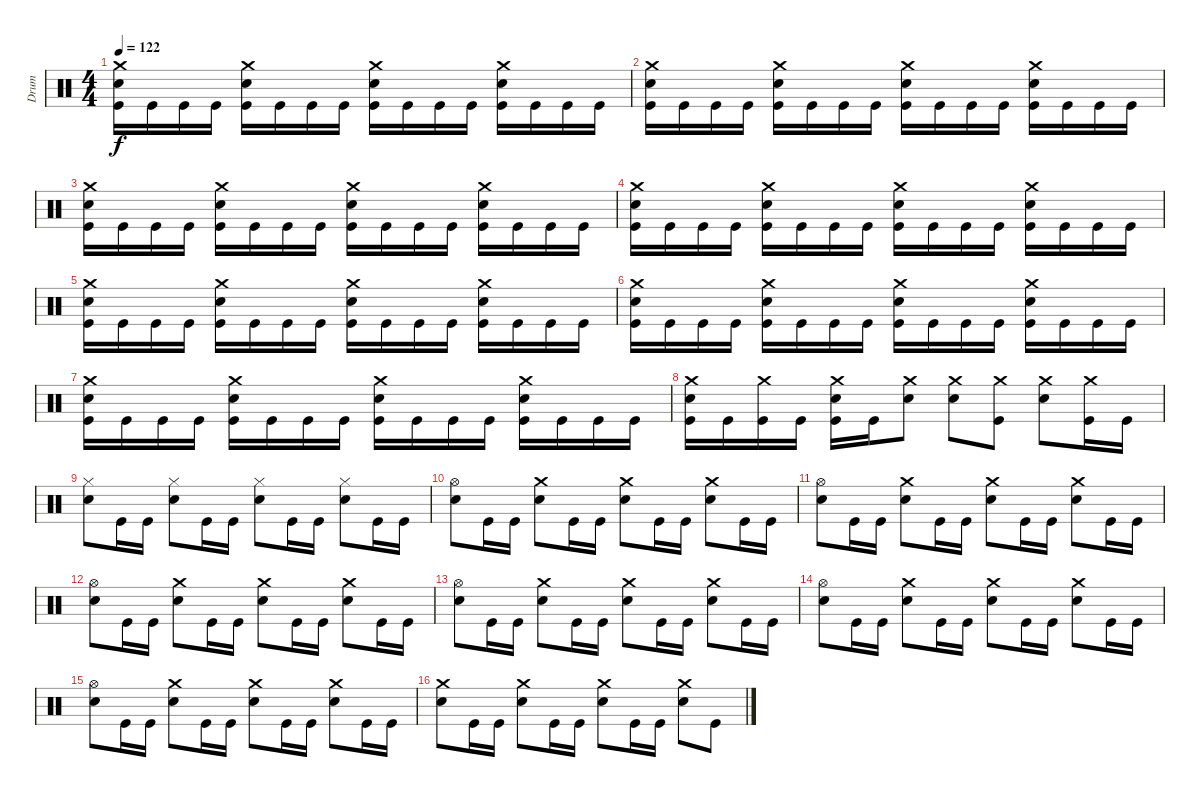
\track ("Drum" "Drum") {instrument percussion}
\staff {score}
\articulation defaults
\ts (4 4)
\tempo 122
\clef neutral
\ks c
("Kick (hit)" "Electric Snare (hit)" "Crash medium (hit)").16{dy f} "Kick (hit)".16 "Kick (hit)".16 "Kick (hit)".16 ("Kick (hit)" "Electric Snare (hit)" "Crash medium (hit)").16 "Kick (hit)".16 "Kick (hit)".16 "Kick (hit)".16 ("Kick (hit)" "Electric Snare (hit)" "Crash medium (hit)").16 "Kick (hit)".16 "Kick (hit)".16 "Kick (hit)".16 ("Kick (hit)" "Electric Snare (hit)" "Crash medium (hit)").16 "Kick (hit)".16 "Kick (hit)".16 "Kick (hit)".16 |
("Kick (hit)" "Electric Snare (hit)" "Crash medium (hit)").16 "Kick (hit)".16 "Kick (hit)".16 "Kick (hit)".16 ("Kick (hit)" "Electric Snare (hit)" "Crash medium (hit)").16 "Kick (hit)".16 "Kick (hit)".16 "Kick (hit)".16 ("Kick (hit)" "Electric Snare (hit)" "Crash medium (hit)").16 "Kick (hit)".16 "Kick (hit)".16 "Kick (hit)".16 ("Kick (hit)" "Electric Snare (hit)" "Crash medium (hit)").16 "Kick (hit)".16 "Kick (hit)".16 "Kick (hit)".16 |
("Kick (hit)" "Electric Snare (hit)" "Crash medium (hit)").16 "Kick (hit)".16 "Kick (hit)".16 "Kick (hit)".16 ("Kick (hit)" "Electric Snare (hit)" "Crash medium (hit)").16 "Kick (hit)".16 "Kick (hit)".16 "Kick (hit)".16 ("Kick (hit)" "Electric Snare (hit)" "Crash medium (hit)").16 "Kick (hit)".16 "Kick (hit)".16 "Kick (hit)".16 ("Kick (hit)" "Electric Snare (hit)" "Crash medium (hit)").16 "Kick (hit)".16 "Kick (hit)".16 "Kick (hit)".16 |
("Kick (hit)" "Electric Snare (hit)" "Crash medium (hit)").16 "Kick (hit)".16 "Kick (hit)".16 "Kick (hit)".16 ("Kick (hit)" "Electric Snare (hit)" "Crash medium (hit)").16 "Kick (hit)".16 "Kick (hit)".16 "Kick (hit)".16 ("Kick (hit)" "Electric Snare (hit)" "Crash medium (hit)").16 "Kick (hit)".16 "Kick (hit)".16 "Kick (hit)".16 ("Kick (hit)" "Electric Snare (hit)" "Crash medium (hit)").16 "Kick (hit)".16 "Kick (hit)".16 "Kick (hit)".16 |
("Kick (hit)" "Electric Snare (hit)" "Crash medium (hit)").16 "Kick (hit)".16 "Kick (hit)".16 "Kick (hit)".16 ("Kick (hit)" "Electric Snare (hit)" "Crash medium (hit)").16 "Kick (hit)".16 "Kick (hit)".16 "Kick (hit)".16 ("Kick (hit)" "Electric Snare (hit)" "Crash medium (hit)").16 "Kick (hit)".16 "Kick (hit)".16 "Kick (hit)".16 ("Kick (hit)" "Electric Snare (hit)" "Crash medium (hit)").16 "Kick (hit)".16 "Kick (hit)".16 "Kick (hit)".16 |
("Kick (hit)" "Electric Snare (hit)" "Crash medium (hit)").16 "Kick (hit)".16 "Kick (hit)".16 "Kick (hit)".16 ("Kick (hit)" "Electric Snare (hit)" "Crash medium (hit)").16 "Kick (hit)".16 "Kick (hit)".16 "Kick (hit)".16 ("Kick (hit)" "Electric Snare (hit)" "Crash medium (hit)").16 "Kick (hit)".16 "Kick (hit)".16 "Kick (hit)".16 ("Kick (hit)" "Electric Snare (hit)" "Crash medium (hit)").16 "Kick (hit)".16 "Kick (hit)".16 "Kick (hit)".16 |
("Kick (hit)" "Electric Snare (hit)" "Crash medium (hit)").16 "Kick (hit)".16 "Kick (hit)".16 "Kick (hit)".16 ("Kick (hit)" "Electric Snare (hit)" "Crash medium (hit)").16 "Kick (hit)".16 "Kick (hit)".16 "Kick (hit)".16 ("Kick (hit)" "Electric Snare (hit)" "Crash medium (hit)").16 "Kick (hit)".16 "Kick (hit)".16 "Kick (hit)".16 ("Kick (hit)" "Electric Snare (hit)" "Crash medium (hit)").16 "Kick (hit)".16 "Kick (hit)".16 "Kick (hit)".16 |
("Kick (hit)" "Electric Snare (hit)" "Crash medium (hit)").16 "Kick (hit)".16 ("Kick (hit)" "Crash medium (hit)").16 "Kick (hit)".16 ("Kick (hit)" "Electric Snare (hit)" "Crash medium (hit)").16 "Kick (hit)".16 ("Electric Snare (hit)" "Crash medium (hit)").8 ("Electric Snare (hit)" "Crash medium (hit)").8 ("Kick (hit)" "Crash medium (hit)").8 ("Electric Snare (hit)" "Crash medium (hit)").8 ("Kick (hit)" "Crash medium (hit)").16 "Kick (hit)".16 |
("Electric Snare (hit)" "Hi-Hat (closed)").8 "Kick (hit)".16 "Kick (hit)".16 ("Electric Snare (hit)" "Hi-Hat (closed)").8 "Kick (hit)".16 "Kick (hit)".16 ("Electric Snare (hit)" "Hi-Hat (closed)").8 "Kick (hit)".16 "Kick (hit)".16 ("Electric Snare (hit)" "Hi-Hat (closed)").8 "Kick (hit)".16 "Kick (hit)".16 |
("Electric Snare (hit)" "Hi-Hat (open)").8 "Kick (hit)".16 "Kick (hit)".16 ("Electric Snare (hit)" "Crash medium (hit)").8 "Kick (hit)".16 "Kick (hit)".16 ("Electric Snare (hit)" "Crash medium (hit)").8 "Kick (hit)".16 "Kick (hit)".16 ("Electric Snare (hit)" "Crash medium (hit)").8 "Kick (hit)".16 "Kick (hit)".16 |
("Electric Snare (hit)" "Hi-Hat (open)").8 "Kick (hit)".16 "Kick (hit)".16 ("Electric Snare (hit)" "Crash medium (hit)").8 "Kick (hit)".16 "Kick (hit)".16 ("Electric Snare (hit)" "Crash medium (hit)").8 "Kick (hit)".16 "Kick (hit)".16 ("Electric Snare (hit)" "Crash medium (hit)").8 "Kick (hit)".16 "Kick (hit)".16 |
("Electric Snare (hit)" "Hi-Hat (open)").8 "Kick (hit)".16 "Kick (hit)".16 ("Electric Snare (hit)" "Crash medium (hit)").8 "Kick (hit)".16 "Kick (hit)".16 ("Electric Snare (hit)" "Crash medium (hit)").8 "Kick (hit)".16 "Kick (hit)".16 ("Electric Snare (hit)" "Crash medium (hit)").8 "Kick (hit)".16 "Kick (hit)".16 |
("Electric Snare (hit)" "Hi-Hat (open)").8 "Kick (hit)".16 "Kick (hit)".16 ("Electric Snare (hit)" "Crash medium (hit)").8 "Kick (hit)".16 "Kick (hit)".16 ("Electric Snare (hit)" "Crash medium (hit)").8 "Kick (hit)".16 "Kick (hit)".16 ("Electric Snare (hit)" "Crash medium (hit)").8 "Kick (hit)".16 "Kick (hit)".16 |
("Electric Snare (hit)" "Hi-Hat (open)").8 "Kick (hit)".16 "Kick (hit)".16 ("Electric Snare (hit)" "Crash medium (hit)").8 "Kick (hit)".16 "Kick (hit)".16 ("Electric Snare (hit)" "Crash medium (hit)").8 "Kick (hit)".16 "Kick (hit)".16 ("Electric Snare (hit)" "Crash medium (hit)").8 "Kick (hit)".16 "Kick (hit)".16 |
("Electric Snare (hit)" "Hi-Hat (open)").8 "Kick (hit)".16 "Kick (hit)".16 ("Electric Snare (hit)" "Crash medium (hit)").8 "Kick (hit)".16 "Kick (hit)".16 ("Electric Snare (hit)" "Crash medium (hit)").8 "Kick (hit)".16 "Kick (hit)".16 ("Electric Snare (hit)" "Crash medium (hit)").8 "Kick (hit)".16 "Kick (hit)".16 |
("Electric Snare (hit)" "Crash medium (hit)").8 "Kick (hit)".16 "Kick (hit)".16 ("Electric Snare (hit)" "Crash medium (hit)").8 "Kick (hit)".16 "Kick (hit)".16 ("Electric Snare (hit)" "Crash medium (hit)").8 "Kick (hit)".16 "Kick (hit)".16 ("Electric Snare (hit)" "Crash medium (hit)").8 "Kick (hit)".8
